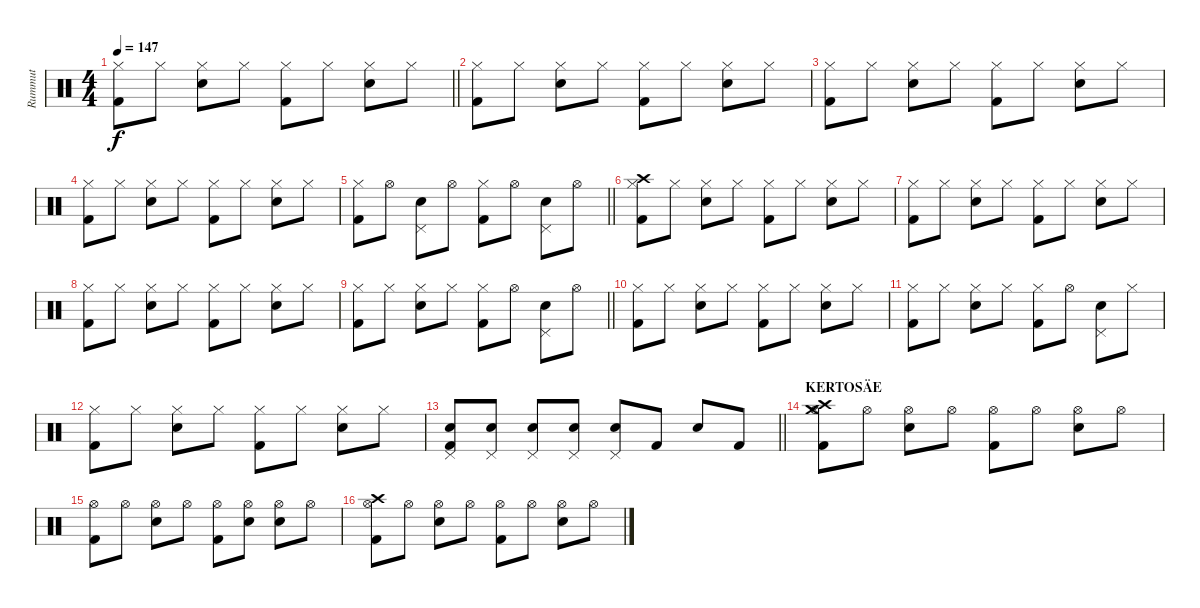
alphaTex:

\track ("Rummut" "Rummut") {instrument percussion}
\staff {score}
\articulation defaults
\ts (4 4)
\tempo 147
\clef neutral
\barLineRight lightlight
\ks c
("Hi-Hat (closed)" "Kick (hit) 2").8{dy f} "Hi-Hat (closed)".8 ("Hi-Hat (closed)" "Snare (hit) 2").8 "Hi-Hat (closed)".8 ("Hi-Hat (closed)" "Kick (hit) 2").8 "Hi-Hat (closed)".8 ("Hi-Hat (closed)" "Snare (hit) 2").8 "Hi-Hat (closed)".8 |
("Hi-Hat (closed)" "Kick (hit) 2").8 "Hi-Hat (closed)".8 ("Hi-Hat (closed)" "Snare (hit) 2").8 "Hi-Hat (closed)".8 ("Hi-Hat (closed)" "Kick (hit) 2").8 "Hi-Hat (closed)".8 ("Hi-Hat (closed)" "Snare (hit) 2").8 "Hi-Hat (closed)".8 |
("Hi-Hat (closed)" "Kick (hit) 2").8 "Hi-Hat (closed)".8 ("Hi-Hat (closed)" "Snare (hit) 2").8 "Hi-Hat (closed)".8 ("Hi-Hat (closed)" "Kick (hit) 2").8 "Hi-Hat (closed)".8 ("Hi-Hat (closed)" "Snare (hit) 2").8 "Hi-Hat (closed)".8 |
("Hi-Hat (closed)" "Kick (hit) 2").8 "Hi-Hat (closed)".8 ("Hi-Hat (closed)" "Snare (hit) 2").8 "Hi-Hat (closed)".8 ("Hi-Hat (closed)" "Kick (hit) 2").8 "Hi-Hat (closed)".8 ("Hi-Hat (closed)" "Snare (hit) 2").8 "Hi-Hat (closed)".8 |
\barLineRight lightlight
("Hi-Hat (closed)" "Kick (hit) 2").8 "Hi-Hat (open)".8 ("Pedal Hi-Hat (hit)" "Snare (hit) 2").8 "Hi-Hat (open)".8 ("Hi-Hat (closed)" "Kick (hit) 2").8 "Hi-Hat (open)".8 ("Pedal Hi-Hat (hit)" "Snare (hit) 2").8 "Hi-Hat (open)".8 |
("Crash high (hit)" "Hi-Hat (closed)" "Kick (hit) 2").8 "Hi-Hat (closed)".8 ("Hi-Hat (closed)" "Snare (hit) 2").8 "Hi-Hat (closed)".8 ("Hi-Hat (closed)" "Kick (hit) 2").8 "Hi-Hat (closed)".8 ("Hi-Hat (closed)" "Snare (hit) 2").8 "Hi-Hat (closed)".8 |
("Hi-Hat (closed)" "Kick (hit) 2").8 "Hi-Hat (closed)".8 ("Hi-Hat (closed)" "Snare (hit) 2").8 "Hi-Hat (closed)".8 ("Hi-Hat (closed)" "Kick (hit) 2").8 "Hi-Hat (closed)".8 ("Hi-Hat (closed)" "Snare (hit) 2").8 "Hi-Hat (closed)".8 |
("Hi-Hat (closed)" "Kick (hit) 2").8 "Hi-Hat (closed)".8 ("Hi-Hat (closed)" "Snare (hit) 2").8 "Hi-Hat (closed)".8 ("Hi-Hat (closed)" "Kick (hit) 2").8 "Hi-Hat (closed)".8 ("Hi-Hat (closed)" "Snare (hit) 2").8 "Hi-Hat (closed)".8 |
\barLineRight lightlight
("Hi-Hat (closed)" "Kick (hit) 2").8 "Hi-Hat (closed)".8 ("Hi-Hat (closed)" "Snare (hit) 2").8 "Hi-Hat (closed)".8 ("Hi-Hat (closed)" "Kick (hit) 2").8 "Hi-Hat (open)".8 ("Pedal Hi-Hat (hit)" "Snare (hit) 2").8 "Hi-Hat (open)".8 |
("Hi-Hat (closed)" "Kick (hit) 2").8 "Hi-Hat (closed)".8 ("Hi-Hat (closed)" "Snare (hit) 2").8 "Hi-Hat (closed)".8 ("Hi-Hat (closed)" "Kick (hit) 2").8 "Hi-Hat (closed)".8 ("Hi-Hat (closed)" "Snare (hit) 2").8 "Hi-Hat (closed)".8 |
("Hi-Hat (closed)" "Kick (hit) 2").8 "Hi-Hat (closed)".8 ("Hi-Hat (closed)" "Snare (hit) 2").8 "Hi-Hat (closed)".8 ("Hi-Hat (closed)" "Kick (hit) 2").8 "Hi-Hat (open)".8 ("Pedal Hi-Hat (hit)" "Snare (hit) 2").8 "Hi-Hat (closed)".8 |
("Hi-Hat (closed)" "Kick (hit) 2").8 "Hi-Hat (closed)".8 ("Hi-Hat (closed)" "Snare (hit) 2").8 "Hi-Hat (closed)".8 ("Hi-Hat (closed)" "Kick (hit) 2").8 "Hi-Hat (closed)".8 ("Hi-Hat (closed)" "Snare (hit) 2").8 "Hi-Hat (closed)".8 |
\barLineRight lightlight
("Pedal Hi-Hat (hit)" "Snare (hit) 2" "Kick (hit) 2").8 ("Pedal Hi-Hat (hit)" "Snare (hit) 2").8 ("Pedal Hi-Hat (hit)" "Snare (hit) 2").8 ("Pedal Hi-Hat (hit)" "Snare (hit) 2").8 ("Pedal Hi-Hat (hit)" "Snare (hit) 2").8 "Kick (hit) 2".8 "Snare (hit) 2".8 "Kick (hit) 2".8 |
\section ("" "KERTOSÄE")
("Crash high (hit)" "Crash medium (hit)" "Hi-Hat (open)" "Kick (hit) 2").8 "Hi-Hat (open)".8 ("Hi-Hat (open)" "Snare (hit) 2").8 "Hi-Hat (open)".8 ("Hi-Hat (open)" "Kick (hit) 2").8 "Hi-Hat (open)".8 ("Hi-Hat (open)" "Snare (hit) 2").8 "Hi-Hat (open)".8 |
("Hi-Hat (open)" "Kick (hit) 2").8 "Hi-Hat (open)".8 ("Hi-Hat (open)" "Snare (hit) 2").8 "Hi-Hat (open)".8 ("Hi-Hat (open)" "Kick (hit) 2").8 ("Hi-Hat (open)" "Snare (hit) 2").8 ("Hi-Hat (open)" "Snare (hit) 2").8 "Hi-Hat (open)".8 |
("Crash high (hit)" "Hi-Hat (open)" "Kick (hit) 2").8 "Hi-Hat (open)".8 ("Hi-Hat (open)" "Snare (hit) 2").8 "Hi-Hat (open)".8 ("Hi-Hat (open)" "Kick (hit) 2").8 "Hi-Hat (open)".8 ("Hi-Hat (open)" "Snare (hit) 2").8 "Hi-Hat (open)".8
